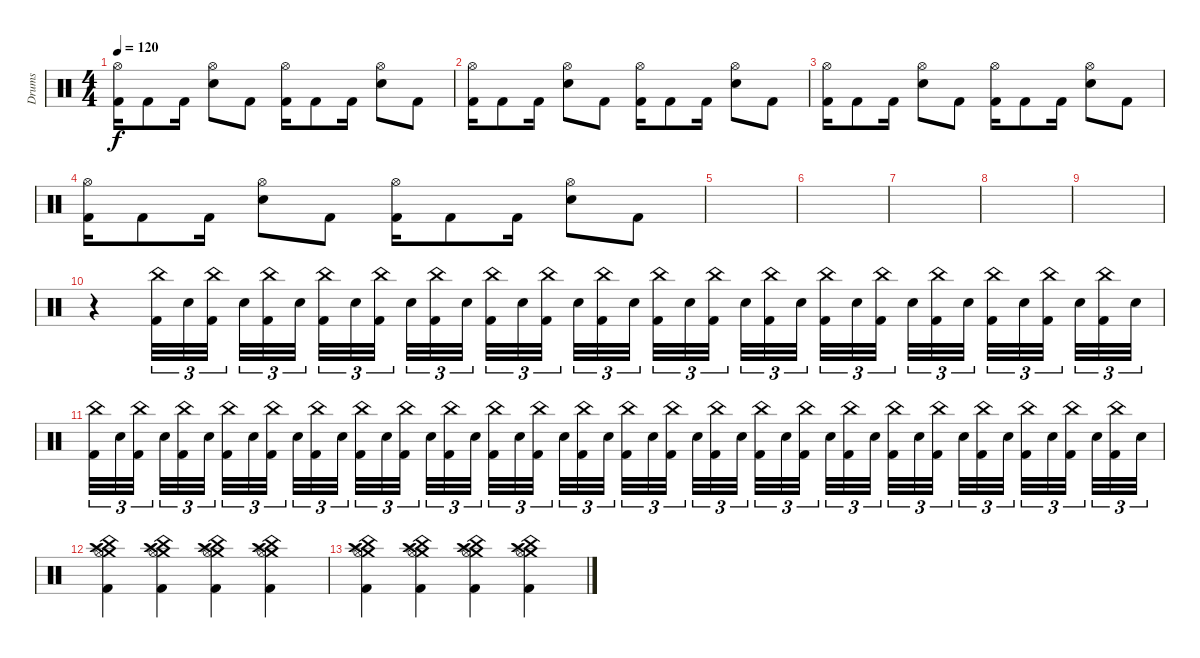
\track ("Drums" "Drums") {instrument percussion}
\staff {score}
\articulation defaults
\ts (4 4)
\tempo 120
\clef neutral
\ks c
("Hi-Hat (open)" "Kick (hit) 2").16{dy f} "Kick (hit) 2".8 "Kick (hit) 2".16 ("Hi-Hat (open)" "Electric Snare (hit)").8 "Kick (hit) 2".8 ("Hi-Hat (open)" "Kick (hit) 2").16 "Kick (hit) 2".8 "Kick (hit) 2".16 ("Hi-Hat (open)" "Electric Snare (hit)").8 "Kick (hit) 2".8 |
("Hi-Hat (open)" "Kick (hit) 2").16 "Kick (hit) 2".8 "Kick (hit) 2".16 ("Hi-Hat (open)" "Electric Snare (hit)").8 "Kick (hit) 2".8 ("Hi-Hat (open)" "Kick (hit) 2").16 "Kick (hit) 2".8 "Kick (hit) 2".16 ("Hi-Hat (open)" "Electric Snare (hit)").8 "Kick (hit) 2".8 |
("Hi-Hat (open)" "Kick (hit) 2").16 "Kick (hit) 2".8 "Kick (hit) 2".16 ("Hi-Hat (open)" "Electric Snare (hit)").8 "Kick (hit) 2".8 ("Hi-Hat (open)" "Kick (hit) 2").16 "Kick (hit) 2".8 "Kick (hit) 2".16 ("Hi-Hat (open)" "Electric Snare (hit)").8 "Kick (hit) 2".8 |
("Hi-Hat (open)" "Kick (hit) 2").16 "Kick (hit) 2".8 "Kick (hit) 2".16 ("Hi-Hat (open)" "Electric Snare (hit)").8 "Kick (hit) 2".8 ("Hi-Hat (open)" "Kick (hit) 2").16 "Kick (hit) 2".8 "Kick (hit) 2".16 ("Hi-Hat (open)" "Electric Snare (hit)").8 "Kick (hit) 2".8 |
|
|
|
|
|
r.4 ("China (hit)" "Kick (hit) 2").32{tu (3 2)} "Electric Snare (hit)".32{tu (3 2)} ("China (hit)" "Kick (hit) 2").32{tu (3 2) beam splitsecondary} "Electric Snare (hit)".32{tu (3 2)} ("China (hit)" "Kick (hit) 2").32{tu (3 2)} "Electric Snare (hit)".32{tu (3 2) beam splitsecondary} ("China (hit)" "Kick (hit) 2").32{tu (3 2)} "Electric Snare (hit)".32{tu (3 2)} ("China (hit)" "Kick (hit) 2").32{tu (3 2) beam splitsecondary} "Electric Snare (hit)".32{tu (3 2)} ("China (hit)" "Kick (hit) 2").32{tu (3 2)} "Electric Snare (hit)".32{tu (3 2)} ("China (hit)" "Kick (hit) 2").32{tu (3 2)} "Electric Snare (hit)".32{tu (3 2)} ("China (hit)" "Kick (hit) 2").32{tu (3 2) beam splitsecondary} "Electric Snare (hit)".32{tu (3 2)} ("China (hit)" "Kick (hit) 2").32{tu (3 2)} "Electric Snare (hit)".32{tu (3 2) beam splitsecondary} ("China (hit)" "Kick (hit) 2").32{tu (3 2)} "Electric Snare (hit)".32{tu (3 2)} ("China (hit)" "Kick (hit) 2").32{tu (3 2) beam splitsecondary} "Electric Snare (hit)".32{tu (3 2)} ("China (hit)" "Kick (hit) 2").32{tu (3 2)} "Electric Snare (hit)".32{tu (3 2)} ("China (hit)" "Kick (hit) 2").32{tu (3 2)} "Electric Snare (hit)".32{tu (3 2)} ("China (hit)" "Kick (hit) 2").32{tu (3 2) beam splitsecondary} "Electric Snare (hit)".32{tu (3 2)} ("China (hit)" "Kick (hit) 2").32{tu (3 2)} "Electric Snare (hit)".32{tu (3 2) beam splitsecondary} ("China (hit)" "Kick (hit) 2").32{tu (3 2)} "Electric Snare (hit)".32{tu (3 2)} ("China (hit)" "Kick (hit) 2").32{tu (3 2) beam splitsecondary} "Electric Snare (hit)".32{tu (3 2)} ("China (hit)" "Kick (hit) 2").32{tu (3 2)} "Electric Snare (hit)".32{tu (3 2)} |
("China (hit)" "Kick (hit) 2").32{tu (3 2)} "Electric Snare (hit)".32{tu (3 2)} ("China (hit)" "Kick (hit) 2").32{tu (3 2) beam splitsecondary} "Electric Snare (hit)".32{tu (3 2)} ("China (hit)" "Kick (hit) 2").32{tu (3 2)} "Electric Snare (hit)".32{tu (3 2) beam splitsecondary} ("China (hit)" "Kick (hit) 2").32{tu (3 2)} "Electric Snare (hit)".32{tu (3 2)} ("China (hit)" "Kick (hit) 2").32{tu (3 2) beam splitsecondary} "Electric Snare (hit)".32{tu (3 2)} ("China (hit)" "Kick (hit) 2").32{tu (3 2)} "Electric Snare (hit)".32{tu (3 2)} ("China (hit)" "Kick (hit) 2").32{tu (3 2)} "Electric Snare (hit)".32{tu (3 2)} ("China (hit)" "Kick (hit) 2").32{tu (3 2) beam splitsecondary} "Electric Snare (hit)".32{tu (3 2)} ("China (hit)" "Kick (hit) 2").32{tu (3 2)} "Electric Snare (hit)".32{tu (3 2) beam splitsecondary} ("China (hit)" "Kick (hit) 2").32{tu (3 2)} "Electric Snare (hit)".32{tu (3 2)} ("China (hit)" "Kick (hit) 2").32{tu (3 2) beam splitsecondary} "Electric Snare (hit)".32{tu (3 2)} ("China (hit)" "Kick (hit) 2").32{tu (3 2)} "Electric Snare (hit)".32{tu (3 2)} ("China (hit)" "Kick (hit) 2").32{tu (3 2)} "Electric Snare (hit)".32{tu (3 2)} ("China (hit)" "Kick (hit) 2").32{tu (3 2) beam splitsecondary} "Electric Snare (hit)".32{tu (3 2)} ("China (hit)" "Kick (hit) 2").32{tu (3 2)} "Electric Snare (hit)".32{tu (3 2) beam splitsecondary} ("China (hit)" "Kick (hit) 2").32{tu (3 2)} "Electric Snare (hit)".32{tu (3 2)} ("China (hit)" "Kick (hit) 2").32{tu (3 2) beam splitsecondary} "Electric Snare (hit)".32{tu (3 2)} ("China (hit)" "Kick (hit) 2").32{tu (3 2)} "Electric Snare (hit)".32{tu (3 2)} ("China (hit)" "Kick (hit) 2").32{tu (3 2)} "Electric Snare (hit)".32{tu (3 2)} ("China (hit)" "Kick (hit) 2").32{tu (3 2) beam splitsecondary} "Electric Snare (hit)".32{tu (3 2)} ("China (hit)" "Kick (hit) 2").32{tu (3 2)} "Electric Snare (hit)".32{tu (3 2) beam splitsecondary} ("China (hit)" "Kick (hit) 2").32{tu (3 2)} "Electric Snare (hit)".32{tu (3 2)} ("China (hit)" "Kick (hit) 2").32{tu (3 2) beam splitsecondary} "Electric Snare (hit)".32{tu (3 2)} ("China (hit)" "Kick (hit) 2").32{tu (3 2)} "Electric Snare (hit)".32{tu (3 2)} |
("Crash medium (hit)" "Crash high (hit)" "China (hit)" "Splash (hit)" "Hi-Hat (open)" "Kick (hit) 2").4 ("Crash medium (hit)" "Crash high (hit)" "China (hit)" "Splash (hit)" "Hi-Hat (open)" "Kick (hit) 2").4 ("Crash medium (hit)" "Crash high (hit)" "China (hit)" "Splash (hit)" "Hi-Hat (open)" "Kick (hit) 2").4 ("Crash medium (hit)" "Crash high (hit)" "China (hit)" "Splash (hit)" "Hi-Hat (open)" "Kick (hit) 2").4 |
("Crash medium (hit)" "Crash high (hit)" "China (hit)" "Splash (hit)" "Hi-Hat (open)" "Kick (hit) 2").4 ("Crash medium (hit)" "Crash high (hit)" "China (hit)" "Splash (hit)" "Hi-Hat (open)" "Kick (hit) 2").4 ("Crash medium (hit)" "Crash high (hit)" "China (hit)" "Splash (hit)" "Hi-Hat (open)" "Kick (hit) 2").4 ("Crash medium (hit)" "Crash high (hit)" "China (hit)" "Splash (hit)" "Hi-Hat (open)" "Kick (hit) 2").4
